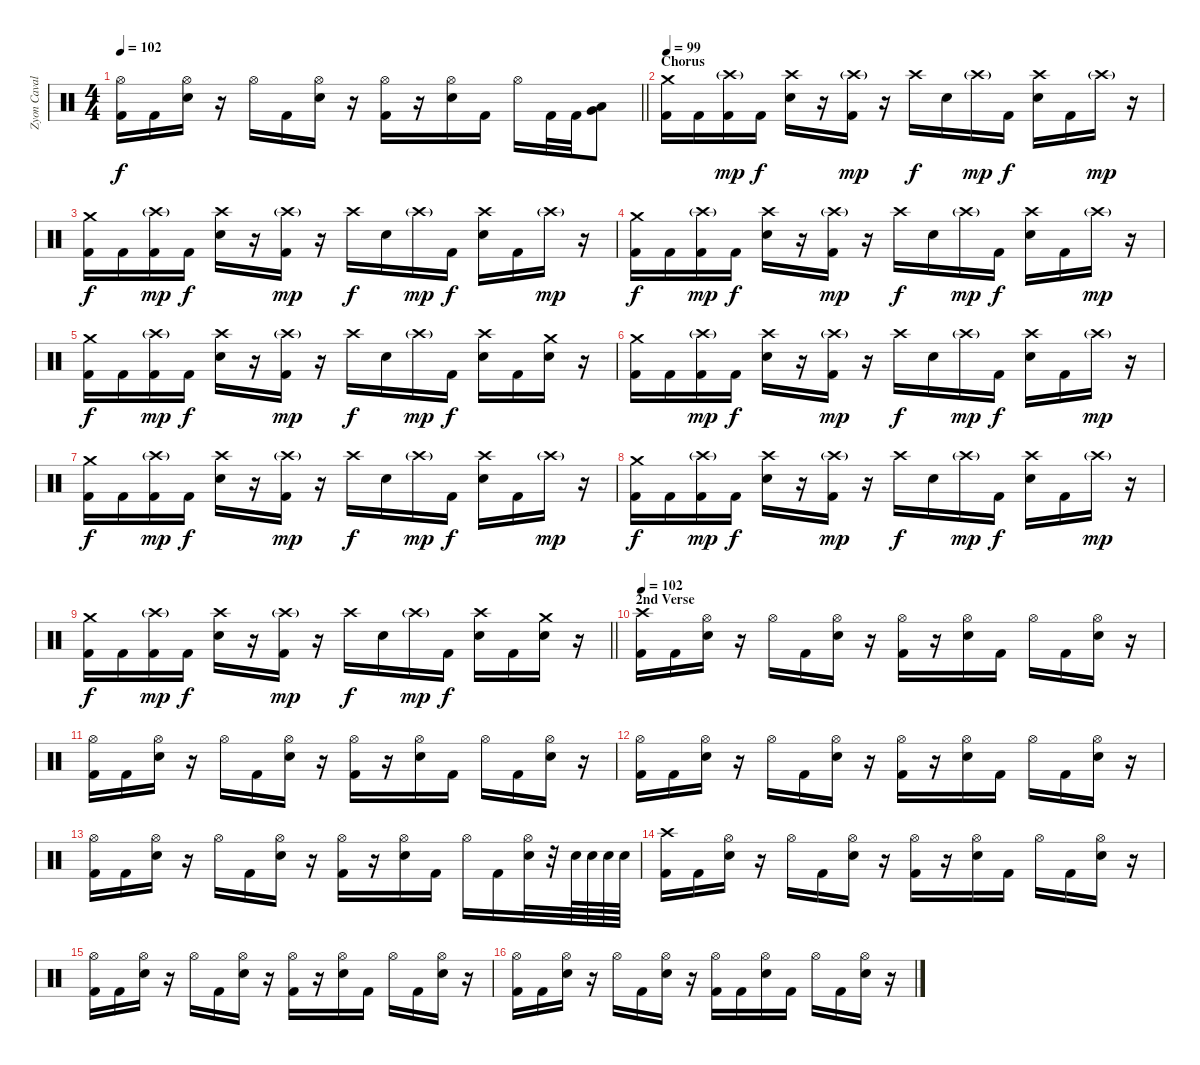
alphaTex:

\track ("Zyon Cavalera" "Zyon Caval") {instrument percussion}
\staff {score}
\articulation defaults
\ts (4 4)
\tempo 102
\clef neutral
\barLineRight lightlight
\ks c
("Hi-Hat (open)" "Kick (hit) 2").16{dy f} "Kick (hit) 2".16 ("Hi-Hat (open)" "Snare (hit) 2").16 r.16 "Hi-Hat (open)".16 "Kick (hit) 2".16 ("Hi-Hat (open)" "Snare (hit) 2").16 r.16 ("Hi-Hat (open)" "Kick (hit) 2").16 r.16 ("Hi-Hat (open)" "Snare (hit) 2").16 "Kick (hit) 2".16 "Hi-Hat (open)".16 "Kick (hit) 2".32 "Kick (hit) 2".32 ("Very Low Tom (hit)" "Low Floor Tom (hit)").8 |
\section ("" "Chorus")
\tempo 99
("Crash medium (hit)" "Kick (hit) 2").16 "Kick (hit) 2".16 ("Crash high (hit)"{g} "Kick (hit) 2").16{dy mp} "Kick (hit) 2".16{dy f} ("Crash high (hit)" "Snare (hit) 2").16 r.16 ("Crash high (hit)"{g} "Kick (hit) 2").16{dy mp} r.16 "Crash high (hit)".16{dy f} "Snare (hit) 2".16 "Crash high (hit)"{g}.16{dy mp} "Kick (hit) 2".16{dy f} ("Crash high (hit)" "Snare (hit) 2").16 "Kick (hit) 2".16 "Crash high (hit)"{g}.16{dy mp} r.16 |
("Crash medium (hit)" "Kick (hit) 2").16{dy f} "Kick (hit) 2".16 ("Crash high (hit)"{g} "Kick (hit) 2").16{dy mp} "Kick (hit) 2".16{dy f} ("Crash high (hit)" "Snare (hit) 2").16 r.16 ("Crash high (hit)"{g} "Kick (hit) 2").16{dy mp} r.16 "Crash high (hit)".16{dy f} "Snare (hit) 2".16 "Crash high (hit)"{g}.16{dy mp} "Kick (hit) 2".16{dy f} ("Crash high (hit)" "Snare (hit) 2").16 "Kick (hit) 2".16 "Crash high (hit)"{g}.16{dy mp} r.16 |
("Crash medium (hit)" "Kick (hit) 2").16{dy f} "Kick (hit) 2".16 ("Crash high (hit)"{g} "Kick (hit) 2").16{dy mp} "Kick (hit) 2".16{dy f} ("Crash high (hit)" "Snare (hit) 2").16 r.16 ("Crash high (hit)"{g} "Kick (hit) 2").16{dy mp} r.16 "Crash high (hit)".16{dy f} "Snare (hit) 2".16 "Crash high (hit)"{g}.16{dy mp} "Kick (hit) 2".16{dy f} ("Crash high (hit)" "Snare (hit) 2").16 "Kick (hit) 2".16 "Crash high (hit)"{g}.16{dy mp} r.16 |
("Crash medium (hit)" "Kick (hit) 2").16{dy f} "Kick (hit) 2".16 ("Crash high (hit)"{g} "Kick (hit) 2").16{dy mp} "Kick (hit) 2".16{dy f} ("Crash high (hit)" "Snare (hit) 2").16 r.16 ("Crash high (hit)"{g} "Kick (hit) 2").16{dy mp} r.16 "Crash high (hit)".16{dy f} "Snare (hit) 2".16 "Crash high (hit)"{g}.16{dy mp} "Kick (hit) 2".16{dy f} ("Crash high (hit)" "Snare (hit) 2").16 "Kick (hit) 2".16 ("Crash medium (hit)" "Snare (hit) 2").16 r.16 |
("Crash medium (hit)" "Kick (hit) 2").16 "Kick (hit) 2".16 ("Crash high (hit)"{g} "Kick (hit) 2").16{dy mp} "Kick (hit) 2".16{dy f} ("Crash high (hit)" "Snare (hit) 2").16 r.16 ("Crash high (hit)"{g} "Kick (hit) 2").16{dy mp} r.16 "Crash high (hit)".16{dy f} "Snare (hit) 2".16 "Crash high (hit)"{g}.16{dy mp} "Kick (hit) 2".16{dy f} ("Crash high (hit)" "Snare (hit) 2").16 "Kick (hit) 2".16 "Crash high (hit)"{g}.16{dy mp} r.16 |
("Crash medium (hit)" "Kick (hit) 2").16{dy f} "Kick (hit) 2".16 ("Crash high (hit)"{g} "Kick (hit) 2").16{dy mp} "Kick (hit) 2".16{dy f} ("Crash high (hit)" "Snare (hit) 2").16 r.16 ("Crash high (hit)"{g} "Kick (hit) 2").16{dy mp} r.16 "Crash high (hit)".16{dy f} "Snare (hit) 2".16 "Crash high (hit)"{g}.16{dy mp} "Kick (hit) 2".16{dy f} ("Crash high (hit)" "Snare (hit) 2").16 "Kick (hit) 2".16 "Crash high (hit)"{g}.16{dy mp} r.16 |
("Crash medium (hit)" "Kick (hit) 2").16{dy f} "Kick (hit) 2".16 ("Crash high (hit)"{g} "Kick (hit) 2").16{dy mp} "Kick (hit) 2".16{dy f} ("Crash high (hit)" "Snare (hit) 2").16 r.16 ("Crash high (hit)"{g} "Kick (hit) 2").16{dy mp} r.16 "Crash high (hit)".16{dy f} "Snare (hit) 2".16 "Crash high (hit)"{g}.16{dy mp} "Kick (hit) 2".16{dy f} ("Crash high (hit)" "Snare (hit) 2").16 "Kick (hit) 2".16 "Crash high (hit)"{g}.16{dy mp} r.16 |
\barLineRight lightlight
("Crash medium (hit)" "Kick (hit) 2").16{dy f} "Kick (hit) 2".16 ("Crash high (hit)"{g} "Kick (hit) 2").16{dy mp} "Kick (hit) 2".16{dy f} ("Crash high (hit)" "Snare (hit) 2").16 r.16 ("Crash high (hit)"{g} "Kick (hit) 2").16{dy mp} r.16 "Crash high (hit)".16{dy f} "Snare (hit) 2".16 "Crash high (hit)"{g}.16{dy mp} "Kick (hit) 2".16{dy f} ("Crash high (hit)" "Snare (hit) 2").16 "Kick (hit) 2".16 ("Crash medium (hit)" "Snare (hit) 2").16 r.16 |
\section ("" "2nd Verse")
\tempo 102
("Crash high (hit)" "Kick (hit) 2").16 "Kick (hit) 2".16 ("Hi-Hat (open)" "Snare (hit) 2").16 r.16 "Hi-Hat (open)".16 "Kick (hit) 2".16 ("Hi-Hat (open)" "Snare (hit) 2").16 r.16 ("Hi-Hat (open)" "Kick (hit) 2").16 r.16 ("Hi-Hat (open)" "Snare (hit) 2").16 "Kick (hit) 2".16 "Hi-Hat (open)".16 "Kick (hit) 2".16 ("Hi-Hat (open)" "Snare (hit) 2").16 r.16 |
("Hi-Hat (open)" "Kick (hit) 2").16 "Kick (hit) 2".16 ("Hi-Hat (open)" "Snare (hit) 2").16 r.16 "Hi-Hat (open)".16 "Kick (hit) 2".16 ("Hi-Hat (open)" "Snare (hit) 2").16 r.16 ("Hi-Hat (open)" "Kick (hit) 2").16 r.16 ("Hi-Hat (open)" "Snare (hit) 2").16 "Kick (hit) 2".16 "Hi-Hat (open)".16 "Kick (hit) 2".16 ("Hi-Hat (open)" "Snare (hit) 2").16 r.16 |
("Hi-Hat (open)" "Kick (hit) 2").16 "Kick (hit) 2".16 ("Hi-Hat (open)" "Snare (hit) 2").16 r.16 "Hi-Hat (open)".16 "Kick (hit) 2".16 ("Hi-Hat (open)" "Snare (hit) 2").16 r.16 ("Hi-Hat (open)" "Kick (hit) 2").16 r.16 ("Hi-Hat (open)" "Snare (hit) 2").16 "Kick (hit) 2".16 "Hi-Hat (open)".16 "Kick (hit) 2".16 ("Hi-Hat (open)" "Snare (hit) 2").16 r.16 |
("Hi-Hat (open)" "Kick (hit) 2").16 "Kick (hit) 2".16 ("Hi-Hat (open)" "Snare (hit) 2").16 r.16 "Hi-Hat (open)".16 "Kick (hit) 2".16 ("Hi-Hat (open)" "Snare (hit) 2").16 r.16 ("Hi-Hat (open)" "Kick (hit) 2").16 r.16 ("Hi-Hat (open)" "Snare (hit) 2").16 "Kick (hit) 2".16 "Hi-Hat (open)".16 "Kick (hit) 2".16 ("Hi-Hat (open)" "Snare (hit) 2").32 r.32 "Snare (hit) 2".64 "Snare (hit) 2".64 "Snare (hit) 2".64 "Snare (hit) 2".64 |
("Crash high (hit)" "Kick (hit) 2").16 "Kick (hit) 2".16 ("Hi-Hat (open)" "Snare (hit) 2").16 r.16 "Hi-Hat (open)".16 "Kick (hit) 2".16 ("Hi-Hat (open)" "Snare (hit) 2").16 r.16 ("Hi-Hat (open)" "Kick (hit) 2").16 r.16 ("Hi-Hat (open)" "Snare (hit) 2").16 "Kick (hit) 2".16 "Hi-Hat (open)".16 "Kick (hit) 2".16 ("Hi-Hat (open)" "Snare (hit) 2").16 r.16 |
("Hi-Hat (open)" "Kick (hit) 2").16 "Kick (hit) 2".16 ("Hi-Hat (open)" "Snare (hit) 2").16 r.16 "Hi-Hat (open)".16 "Kick (hit) 2".16 ("Hi-Hat (open)" "Snare (hit) 2").16 r.16 ("Hi-Hat (open)" "Kick (hit) 2").16 r.16 ("Hi-Hat (open)" "Snare (hit) 2").16 "Kick (hit) 2".16 "Hi-Hat (open)".16 "Kick (hit) 2".16 ("Hi-Hat (open)" "Snare (hit) 2").16 r.16 |
("Hi-Hat (open)" "Kick (hit) 2").16 "Kick (hit) 2".16 ("Hi-Hat (open)" "Snare (hit) 2").16 r.16 "Hi-Hat (open)".16 "Kick (hit) 2".16 ("Hi-Hat (open)" "Snare (hit) 2").16 r.16 ("Hi-Hat (open)" "Kick (hit) 2").16 "Kick (hit) 2".16 ("Hi-Hat (open)" "Snare (hit) 2").16 "Kick (hit) 2".16 "Hi-Hat (open)".16 "Kick (hit) 2".16 ("Hi-Hat (open)" "Snare (hit) 2").16 r.16
